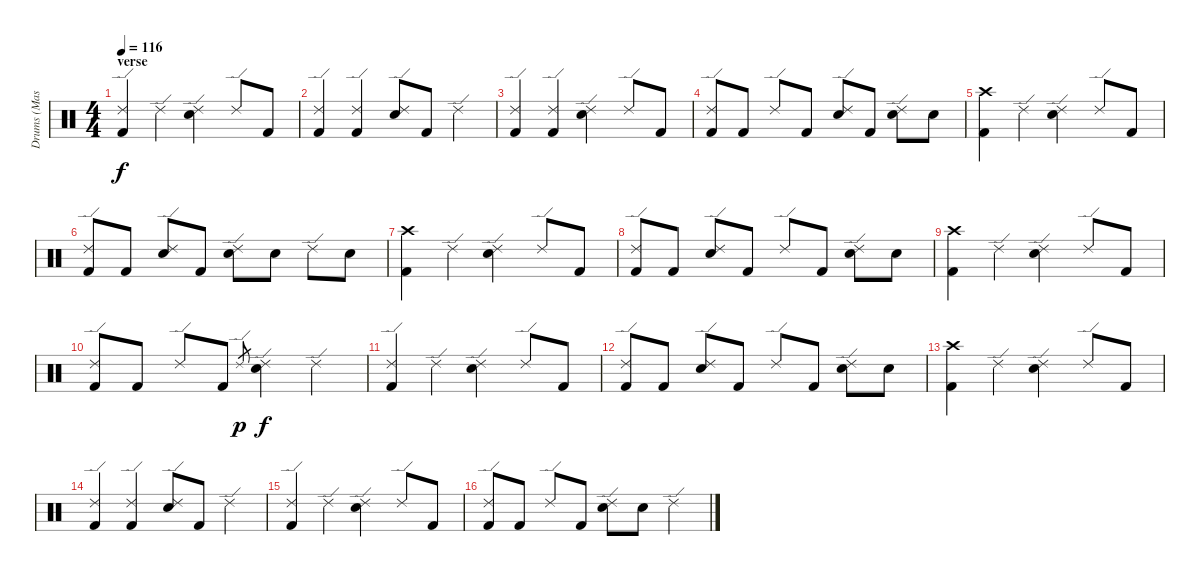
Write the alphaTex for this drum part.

\track ("Drums (Mason)" "Drums (Mas") {instrument percussion}
\staff {score}
\articulation defaults
\ts (4 4)
\section ("" "verse")
\tempo 116
\clef neutral
\ks c
("Ride (edge) 2" "Kick (hit) 2").4{dy f} "Ride (edge) 2".4 ("Ride (edge) 2" "Electric Snare (hit)").4 "Ride (edge) 2".8 "Kick (hit) 2".8 |
("Ride (edge) 2" "Kick (hit) 2").4 ("Ride (edge) 2" "Kick (hit) 2").4 ("Ride (edge) 2" "Electric Snare (hit)").8 "Kick (hit) 2".8 "Ride (edge) 2".4 |
("Ride (edge) 2" "Kick (hit) 2").4 ("Ride (edge) 2" "Kick (hit) 2").4 ("Ride (edge) 2" "Electric Snare (hit)").4 "Ride (edge) 2".8 "Kick (hit) 2".8 |
("Ride (edge) 2" "Kick (hit) 2").8 "Kick (hit) 2".8 "Ride (edge) 2".8 "Kick (hit) 2".8 ("Ride (edge) 2" "Electric Snare (hit)").8 "Kick (hit) 2".8 ("Ride (edge) 2" "Electric Snare (hit)").8 "Electric Snare (hit)".8 |
("Crash high (hit)" "Kick (hit) 2").4 "Ride (edge) 2".4 ("Ride (edge) 2" "Electric Snare (hit)").4 "Ride (edge) 2".8 "Kick (hit) 2".8 |
("Ride (edge) 2" "Kick (hit) 2").8 "Kick (hit) 2".8 ("Ride (edge) 2" "Electric Snare (hit)").8 "Kick (hit) 2".8 ("Ride (edge) 2" "Electric Snare (hit)").8 "Electric Snare (hit)".8 "Ride (edge) 2".8 "Electric Snare (hit)".8 |
("Crash high (hit)" "Kick (hit) 2").4 "Ride (edge) 2".4 ("Ride (edge) 2" "Electric Snare (hit)").4 "Ride (edge) 2".8 "Kick (hit) 2".8 |
("Ride (edge) 2" "Kick (hit) 2").8 "Kick (hit) 2".8 ("Ride (edge) 2" "Electric Snare (hit)").8 "Kick (hit) 2".8 "Ride (edge) 2".8 "Kick (hit) 2".8 ("Ride (edge) 2" "Electric Snare (hit)").8 "Electric Snare (hit)".8 |
("Crash high (hit)" "Kick (hit) 2").4 "Ride (edge) 2".4 ("Ride (edge) 2" "Electric Snare (hit)").4 "Ride (edge) 2".8 "Kick (hit) 2".8 |
("Ride (edge) 2" "Kick (hit) 2").8 "Kick (hit) 2".8 "Ride (edge) 2".8 "Kick (hit) 2".8 "Ride (edge) 2".8{gr dy p} ("Ride (edge) 2" "Electric Snare (hit)").4{dy f} "Ride (edge) 2".4 |
("Ride (edge) 2" "Kick (hit) 2").4 "Ride (edge) 2".4 ("Ride (edge) 2" "Electric Snare (hit)").4 "Ride (edge) 2".8 "Kick (hit) 2".8 |
("Ride (edge) 2" "Kick (hit) 2").8 "Kick (hit) 2".8 ("Ride (edge) 2" "Electric Snare (hit)").8 "Kick (hit) 2".8 "Ride (edge) 2".8 "Kick (hit) 2".8 ("Ride (edge) 2" "Electric Snare (hit)").8 "Electric Snare (hit)".8 |
("Crash high (hit)" "Kick (hit) 2").4 "Ride (edge) 2".4 ("Ride (edge) 2" "Electric Snare (hit)").4 "Ride (edge) 2".8 "Kick (hit) 2".8 |
("Ride (edge) 2" "Kick (hit) 2").4 ("Ride (edge) 2" "Kick (hit) 2").4 ("Ride (edge) 2" "Electric Snare (hit)").8 "Kick (hit) 2".8 "Ride (edge) 2".4 |
("Ride (edge) 2" "Kick (hit) 2").4 "Ride (edge) 2".4 ("Ride (edge) 2" "Electric Snare (hit)").4 "Ride (edge) 2".8 "Kick (hit) 2".8 |
("Ride (edge) 2" "Kick (hit) 2").8 "Kick (hit) 2".8 "Ride (edge) 2".8 "Kick (hit) 2".8 ("Ride (edge) 2" "Electric Snare (hit)").8 "Electric Snare (hit)".8 "Ride (edge) 2".4
